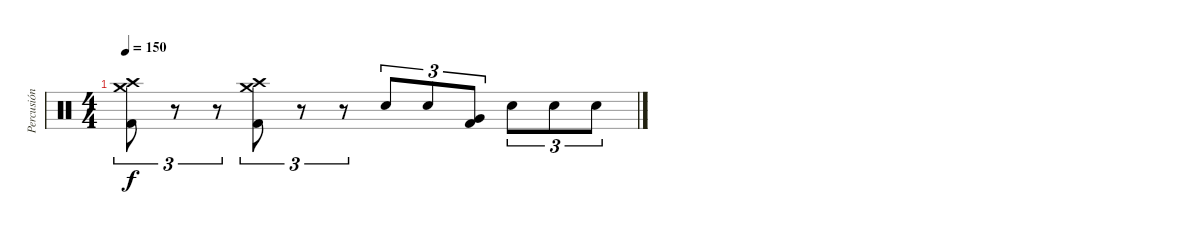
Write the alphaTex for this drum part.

\track ("Percusión" "Percusión") {instrument percussion}
\staff {score}
\articulation defaults
\ts (4 4)
\tempo 150
\clef neutral
\ks c
("Crash medium (hit)" "Crash high (hit)" "Kick (hit) 2").8{tu (3 2) dy f} r.8{tu (3 2)} r.8{tu (3 2)} ("Crash medium (hit)" "Crash high (hit)" "Kick (hit) 2").8{tu (3 2)} r.8{tu (3 2)} r.8{tu (3 2)} "Electric Snare (hit)".8{tu (3 2)} "Electric Snare (hit)".8{tu (3 2)} ("Very Low Tom (hit)" "Kick (hit) 2").8{tu (3 2)} "Electric Snare (hit)".8{tu (3 2)} "Electric Snare (hit)".8{tu (3 2)} "Electric Snare (hit)".8{tu (3 2)}
